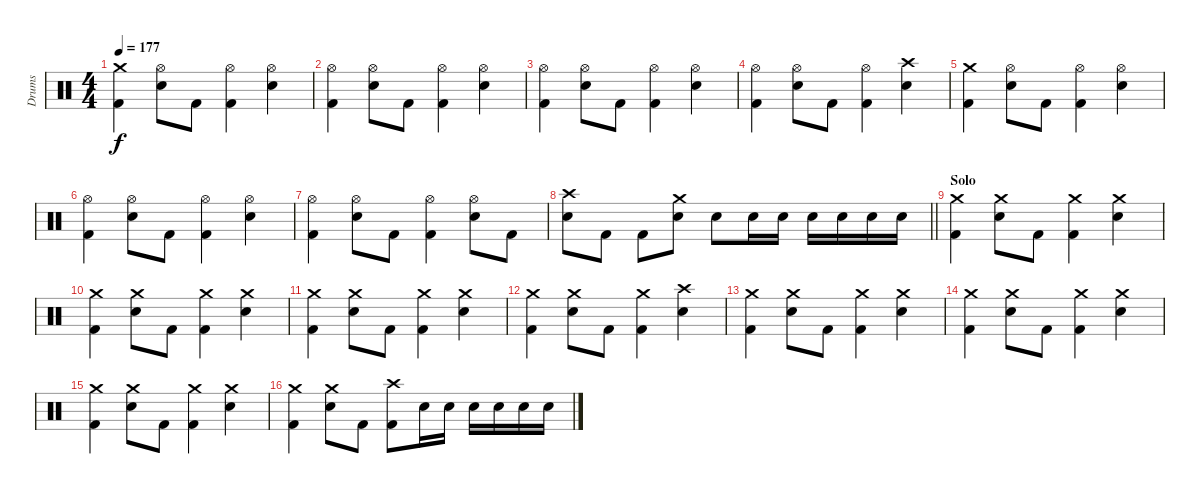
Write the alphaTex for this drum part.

\track ("Drums" "Drums") {instrument percussion}
\staff {score}
\articulation defaults
\ts (4 4)
\tempo 177
\clef neutral
\ks c
("Crash medium (hit)" "Kick (hit) 2").4{dy f} ("Hi-Hat (open)" "Electric Snare (hit)").8 "Kick (hit) 2".8 ("Hi-Hat (open)" "Kick (hit) 2").4 ("Hi-Hat (open)" "Electric Snare (hit)").4 |
("Hi-Hat (open)" "Kick (hit) 2").4 ("Hi-Hat (open)" "Electric Snare (hit)").8 "Kick (hit) 2".8 ("Hi-Hat (open)" "Kick (hit) 2").4 ("Hi-Hat (open)" "Electric Snare (hit)").4 |
("Hi-Hat (open)" "Kick (hit) 2").4 ("Hi-Hat (open)" "Electric Snare (hit)").8 "Kick (hit) 2".8 ("Hi-Hat (open)" "Kick (hit) 2").4 ("Hi-Hat (open)" "Electric Snare (hit)").4 |
("Hi-Hat (open)" "Kick (hit) 2").4 ("Hi-Hat (open)" "Electric Snare (hit)").8 "Kick (hit) 2".8 ("Hi-Hat (open)" "Kick (hit) 2").4 ("Crash high (hit)" "Electric Snare (hit)").4 |
("Crash medium (hit)" "Kick (hit) 2").4 ("Hi-Hat (open)" "Electric Snare (hit)").8 "Kick (hit) 2".8 ("Hi-Hat (open)" "Kick (hit) 2").4 ("Hi-Hat (open)" "Electric Snare (hit)").4 |
("Hi-Hat (open)" "Kick (hit) 2").4 ("Hi-Hat (open)" "Electric Snare (hit)").8 "Kick (hit) 2".8 ("Hi-Hat (open)" "Kick (hit) 2").4 ("Hi-Hat (open)" "Electric Snare (hit)").4 |
("Hi-Hat (open)" "Kick (hit) 2").4 ("Hi-Hat (open)" "Electric Snare (hit)").8 "Kick (hit) 2".8 ("Hi-Hat (open)" "Kick (hit) 2").4 ("Hi-Hat (open)" "Electric Snare (hit)").8 "Kick (hit) 2".8 |
\barLineRight lightlight
("Crash high (hit)" "Electric Snare (hit)").8 "Kick (hit) 2".8 "Kick (hit) 2".8 ("Crash medium (hit)" "Electric Snare (hit)").8 "Electric Snare (hit)".8 "Electric Snare (hit)".16 "Electric Snare (hit)".16 "Electric Snare (hit)".16 "Electric Snare (hit)".16 "Electric Snare (hit)".16 "Electric Snare (hit)".16 |
\section ("" "Solo")
("Crash medium (hit)" "Kick (hit) 2").4 ("Crash medium (hit)" "Electric Snare (hit)").8 "Kick (hit) 2".8 ("Crash medium (hit)" "Kick (hit) 2").4 ("Crash medium (hit)" "Electric Snare (hit)").4 |
("Crash medium (hit)" "Kick (hit) 2").4 ("Crash medium (hit)" "Electric Snare (hit)").8 "Kick (hit) 2".8 ("Crash medium (hit)" "Kick (hit) 2").4 ("Crash medium (hit)" "Electric Snare (hit)").4 |
("Crash medium (hit)" "Kick (hit) 2").4 ("Crash medium (hit)" "Electric Snare (hit)").8 "Kick (hit) 2".8 ("Crash medium (hit)" "Kick (hit) 2").4 ("Crash medium (hit)" "Electric Snare (hit)").4 |
("Crash medium (hit)" "Kick (hit) 2").4 ("Crash medium (hit)" "Electric Snare (hit)").8 "Kick (hit) 2".8 ("Crash medium (hit)" "Kick (hit) 2").4 ("Crash high (hit)" "Electric Snare (hit)").4 |
("Crash medium (hit)" "Kick (hit) 2").4 ("Crash medium (hit)" "Electric Snare (hit)").8 "Kick (hit) 2".8 ("Crash medium (hit)" "Kick (hit) 2").4 ("Crash medium (hit)" "Electric Snare (hit)").4 |
("Crash medium (hit)" "Kick (hit) 2").4 ("Crash medium (hit)" "Electric Snare (hit)").8 "Kick (hit) 2".8 ("Crash medium (hit)" "Kick (hit) 2").4 ("Crash medium (hit)" "Electric Snare (hit)").4 |
("Crash medium (hit)" "Kick (hit) 2").4 ("Crash medium (hit)" "Electric Snare (hit)").8 "Kick (hit) 2".8 ("Crash medium (hit)" "Kick (hit) 2").4 ("Crash medium (hit)" "Electric Snare (hit)").4 |
("Crash medium (hit)" "Kick (hit) 2").4 ("Crash medium (hit)" "Electric Snare (hit)").8 "Kick (hit) 2".8 ("Crash high (hit)" "Kick (hit) 2").8 "Electric Snare (hit)".16 "Electric Snare (hit)".16 "Electric Snare (hit)".16 "Electric Snare (hit)".16 "Electric Snare (hit)".16 "Electric Snare (hit)".16
